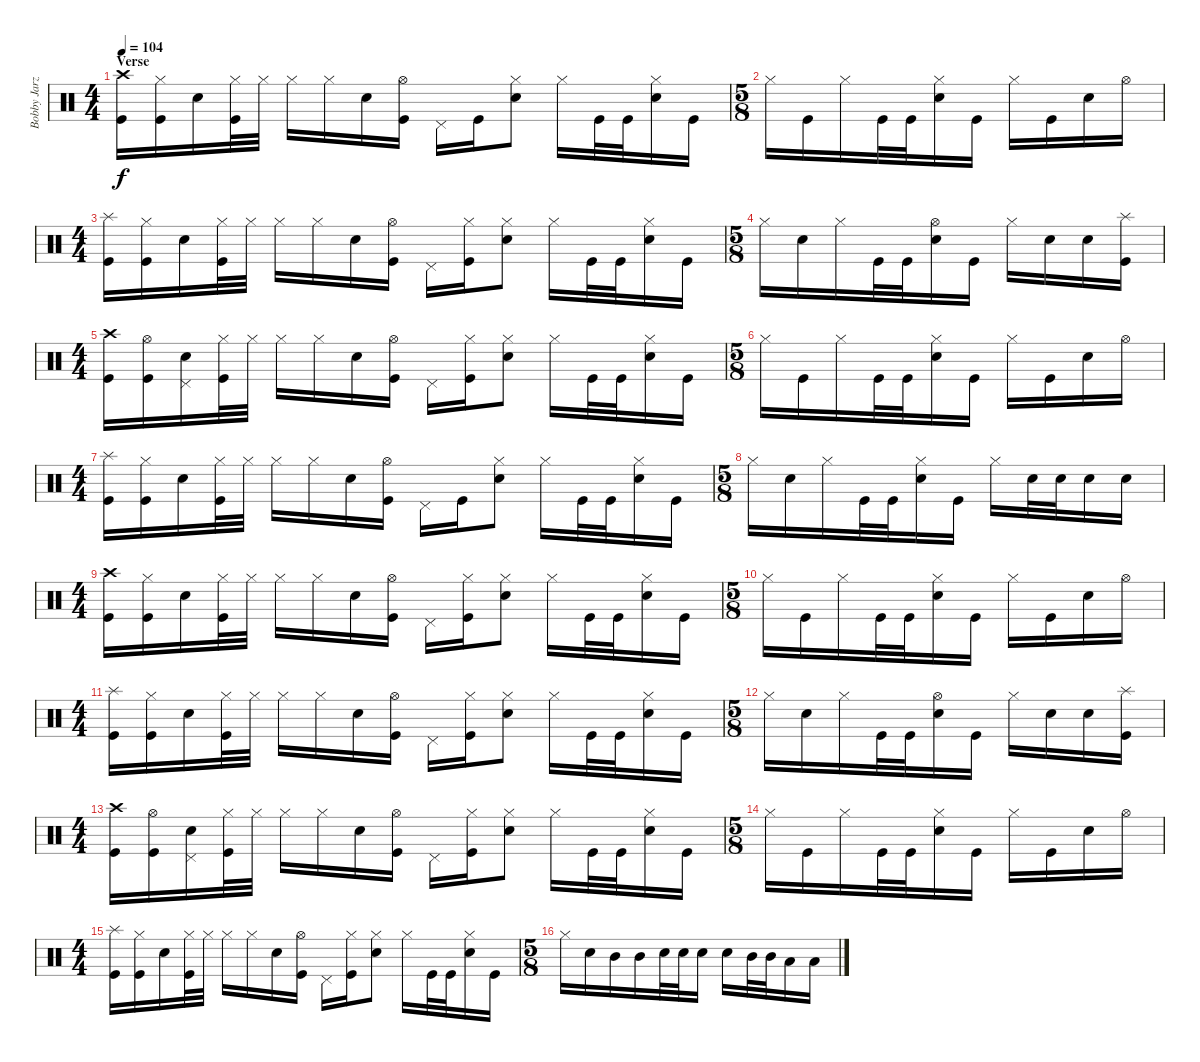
\track ("Bobby Jarzombek" "Bobby Jarz") {instrument percussion}
\staff {score}
\articulation defaults
\ts (4 4)
\section ("" "Verse")
\tempo 104
\clef neutral
\ks c
("Crash high (hit)" "Kick (hit)").16{dy f} ("Hi-Hat (closed)" "Kick (hit)").16 "Electric Snare (hit)".16 ("Hi-Hat (closed)" "Kick (hit)").32 "Hi-Hat (closed)".32 "Hi-Hat (closed)".16 "Hi-Hat (closed)".16 "Electric Snare (hit)".16 ("Hi-Hat (open)" "Kick (hit)").16 "Pedal Hi-Hat (hit)".16 "Kick (hit)".16 ("Hi-Hat (closed)" "Electric Snare (hit)").8 "Hi-Hat (closed)".16 "Kick (hit)".32 "Kick (hit)".32 ("Hi-Hat (closed)" "Electric Snare (hit)").16 "Kick (hit)".16 |
\ts (5 8)
"Hi-Hat (closed)".16 "Kick (hit)".16 "Hi-Hat (closed)".16 "Kick (hit)".32 "Kick (hit)".32 ("Hi-Hat (closed)" "Electric Snare (hit)").16 "Kick (hit)".16 "Hi-Hat (closed)".16 "Kick (hit)".16 "Electric Snare (hit)".16 "Hi-Hat (open)".16 |
\ts (4 4)
("Splash (hit)" "Kick (hit)").16 ("Hi-Hat (closed)" "Kick (hit)").16 "Electric Snare (hit)".16 ("Hi-Hat (closed)" "Kick (hit)").32 "Hi-Hat (closed)".32 "Hi-Hat (closed)".16 "Hi-Hat (closed)".16 "Electric Snare (hit)".16 ("Hi-Hat (open)" "Kick (hit)").16 "Pedal Hi-Hat (hit)".16 ("Hi-Hat (closed)" "Kick (hit)").16 ("Hi-Hat (closed)" "Electric Snare (hit)").8 "Hi-Hat (closed)".16 "Kick (hit)".32 "Kick (hit)".32 ("Hi-Hat (closed)" "Electric Snare (hit)").16 "Kick (hit)".16 |
\ts (5 8)
"Hi-Hat (closed)".16 "Electric Snare (hit)".16 "Hi-Hat (closed)".16 "Kick (hit)".32 "Kick (hit)".32 ("Hi-Hat (open)" "Electric Snare (hit)").16 "Kick (hit)".16 "Hi-Hat (closed)".16 "Electric Snare (hit)".16 "Electric Snare (hit)".16 ("Splash (hit)" "Kick (hit)").16 |
\ts (4 4)
("Crash high (hit)" "Kick (hit)").16 ("Hi-Hat (open)" "Kick (hit)").16 ("Electric Snare (hit)" "Pedal Hi-Hat (hit)").16 ("Hi-Hat (closed)" "Kick (hit)").32 "Hi-Hat (closed)".32 "Hi-Hat (closed)".16 "Hi-Hat (closed)".16 "Electric Snare (hit)".16 ("Hi-Hat (open)" "Kick (hit)").16 "Pedal Hi-Hat (hit)".16 ("Hi-Hat (closed)" "Kick (hit)").16 ("Hi-Hat (closed)" "Electric Snare (hit)").8 "Hi-Hat (closed)".16 "Kick (hit)".32 "Kick (hit)".32 ("Hi-Hat (closed)" "Electric Snare (hit)").16 "Kick (hit)".16 |
\ts (5 8)
"Hi-Hat (closed)".16 "Kick (hit)".16 "Hi-Hat (closed)".16 "Kick (hit)".32 "Kick (hit)".32 ("Hi-Hat (closed)" "Electric Snare (hit)").16 "Kick (hit)".16 "Hi-Hat (closed)".16 "Kick (hit)".16 "Electric Snare (hit)".16 "Hi-Hat (open)".16 |
\ts (4 4)
("Splash (hit)" "Kick (hit)").16 ("Hi-Hat (closed)" "Kick (hit)").16 "Electric Snare (hit)".16 ("Hi-Hat (closed)" "Kick (hit)").32 "Hi-Hat (closed)".32 "Hi-Hat (closed)".16 "Hi-Hat (closed)".16 "Electric Snare (hit)".16 ("Hi-Hat (open)" "Kick (hit)").16 "Pedal Hi-Hat (hit)".16 "Kick (hit)".16 ("Hi-Hat (closed)" "Electric Snare (hit)").8 "Hi-Hat (closed)".16 "Kick (hit)".32 "Kick (hit)".32 ("Hi-Hat (closed)" "Electric Snare (hit)").16 "Kick (hit)".16 |
\ts (5 8)
"Hi-Hat (closed)".16 "Electric Snare (hit)".16 "Hi-Hat (closed)".16 "Kick (hit)".32 "Kick (hit)".32 ("Hi-Hat (closed)" "Electric Snare (hit)").16 "Kick (hit)".16 "Hi-Hat (closed)".16 "Electric Snare (hit)".32 "Electric Snare (hit)".32 "Electric Snare (hit)".16 "Electric Snare (hit)".16 |
\ts (4 4)
("Crash high (hit)" "Kick (hit)").16 ("Hi-Hat (closed)" "Kick (hit)").16 "Electric Snare (hit)".16 ("Hi-Hat (closed)" "Kick (hit)").32 "Hi-Hat (closed)".32 "Hi-Hat (closed)".16 "Hi-Hat (closed)".16 "Electric Snare (hit)".16 ("Hi-Hat (open)" "Kick (hit)").16 "Pedal Hi-Hat (hit)".16 ("Hi-Hat (closed)" "Kick (hit)").16 ("Hi-Hat (closed)" "Electric Snare (hit)").8 "Hi-Hat (closed)".16 "Kick (hit)".32 "Kick (hit)".32 ("Hi-Hat (closed)" "Electric Snare (hit)").16 "Kick (hit)".16 |
\ts (5 8)
"Hi-Hat (closed)".16 "Kick (hit)".16 "Hi-Hat (closed)".16 "Kick (hit)".32 "Kick (hit)".32 ("Hi-Hat (closed)" "Electric Snare (hit)").16 "Kick (hit)".16 "Hi-Hat (closed)".16 "Kick (hit)".16 "Electric Snare (hit)".16 "Hi-Hat (open)".16 |
\ts (4 4)
("Splash (hit)" "Kick (hit)").16 ("Hi-Hat (closed)" "Kick (hit)").16 "Electric Snare (hit)".16 ("Hi-Hat (closed)" "Kick (hit)").32 "Hi-Hat (closed)".32 "Hi-Hat (closed)".16 "Hi-Hat (closed)".16 "Electric Snare (hit)".16 ("Hi-Hat (open)" "Kick (hit)").16 "Pedal Hi-Hat (hit)".16 ("Hi-Hat (closed)" "Kick (hit)").16 ("Hi-Hat (closed)" "Electric Snare (hit)").8 "Hi-Hat (closed)".16 "Kick (hit)".32 "Kick (hit)".32 ("Hi-Hat (closed)" "Electric Snare (hit)").16 "Kick (hit)".16 |
\ts (5 8)
"Hi-Hat (closed)".16 "Electric Snare (hit)".16 "Hi-Hat (closed)".16 "Kick (hit)".32 "Kick (hit)".32 ("Hi-Hat (open)" "Electric Snare (hit)").16 "Kick (hit)".16 "Hi-Hat (closed)".16 "Electric Snare (hit)".16 "Electric Snare (hit)".16 ("Splash (hit)" "Kick (hit)").16 |
\ts (4 4)
("Crash high (hit)" "Kick (hit)").16 ("Hi-Hat (open)" "Kick (hit)").16 ("Electric Snare (hit)" "Pedal Hi-Hat (hit)").16 ("Hi-Hat (closed)" "Kick (hit)").32 "Hi-Hat (closed)".32 "Hi-Hat (closed)".16 "Hi-Hat (closed)".16 "Electric Snare (hit)".16 ("Hi-Hat (open)" "Kick (hit)").16 "Pedal Hi-Hat (hit)".16 ("Hi-Hat (closed)" "Kick (hit)").16 ("Hi-Hat (closed)" "Electric Snare (hit)").8 "Hi-Hat (closed)".16 "Kick (hit)".32 "Kick (hit)".32 ("Hi-Hat (closed)" "Electric Snare (hit)").16 "Kick (hit)".16 |
\ts (5 8)
"Hi-Hat (closed)".16 "Kick (hit)".16 "Hi-Hat (closed)".16 "Kick (hit)".32 "Kick (hit)".32 ("Hi-Hat (closed)" "Electric Snare (hit)").16 "Kick (hit)".16 "Hi-Hat (closed)".16 "Kick (hit)".16 "Electric Snare (hit)".16 "Hi-Hat (open)".16 |
\ts (4 4)
("Splash (hit)" "Kick (hit)").16 ("Hi-Hat (closed)" "Kick (hit)").16 "Electric Snare (hit)".16 ("Hi-Hat (closed)" "Kick (hit)").32 "Hi-Hat (closed)".32 "Hi-Hat (closed)".16 "Hi-Hat (closed)".16 "Electric Snare (hit)".16 ("Hi-Hat (open)" "Kick (hit)").16 "Pedal Hi-Hat (hit)".16 ("Hi-Hat (closed)" "Kick (hit)").16 ("Hi-Hat (closed)" "Electric Snare (hit)").8 "Hi-Hat (closed)".16 "Kick (hit)".32 "Kick (hit)".32 ("Hi-Hat (closed)" "Electric Snare (hit)").16 "Kick (hit)".16 |
\ts (5 8)
"Hi-Hat (closed)".16 "Electric Snare (hit)".16 "Mid Tom (hit)".16 "Mid Tom (hit)".16 "Electric Snare (hit)".32 "Electric Snare (hit)".32 "Electric Snare (hit)".16 "Electric Snare (hit)".16 "Mid Tom (hit)".32 "Mid Tom (hit)".32 "Low Tom (hit)".16 "Low Tom (hit)".16
